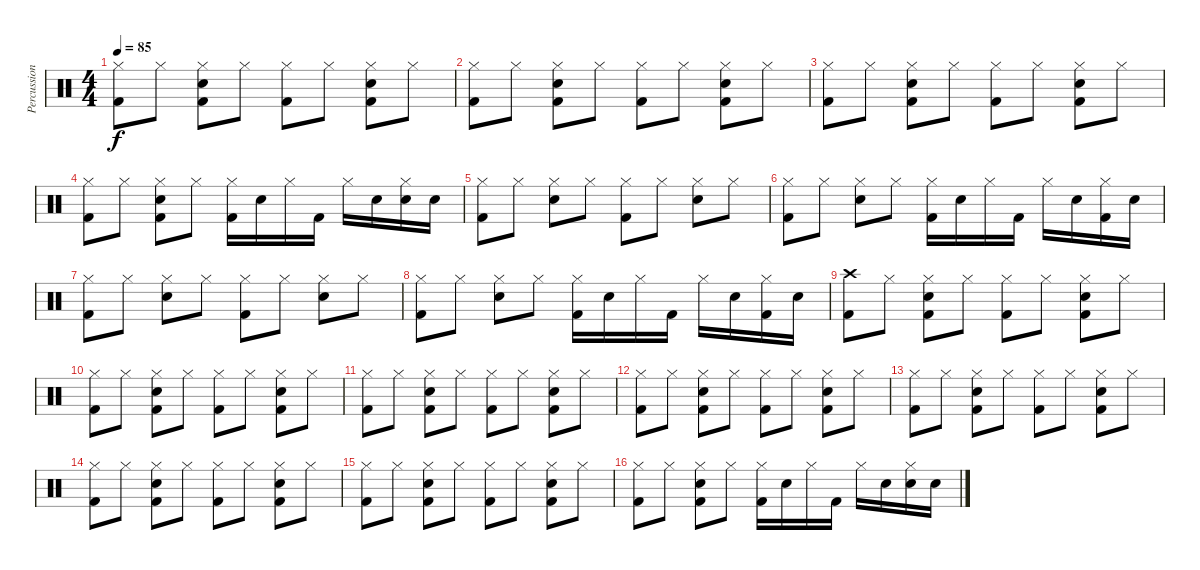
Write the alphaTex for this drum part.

\track ("Percussion" "Percussion") {instrument percussion}
\staff {score}
\articulation defaults
\ts (4 4)
\tempo 85
\clef neutral
\ks c
("Hi-Hat (closed)" "Kick (hit) 2").8{dy f} "Hi-Hat (closed)".8 ("Hi-Hat (closed)" "Electric Snare (hit)" "Kick (hit) 2").8 "Hi-Hat (closed)".8 ("Hi-Hat (closed)" "Kick (hit) 2").8 "Hi-Hat (closed)".8 ("Hi-Hat (closed)" "Electric Snare (hit)" "Kick (hit) 2").8 "Hi-Hat (closed)".8 |
("Hi-Hat (closed)" "Kick (hit) 2").8 "Hi-Hat (closed)".8 ("Hi-Hat (closed)" "Electric Snare (hit)" "Kick (hit) 2").8 "Hi-Hat (closed)".8 ("Hi-Hat (closed)" "Kick (hit) 2").8 "Hi-Hat (closed)".8 ("Hi-Hat (closed)" "Electric Snare (hit)" "Kick (hit) 2").8 "Hi-Hat (closed)".8 |
("Hi-Hat (closed)" "Kick (hit) 2").8 "Hi-Hat (closed)".8 ("Hi-Hat (closed)" "Electric Snare (hit)" "Kick (hit) 2").8 "Hi-Hat (closed)".8 ("Hi-Hat (closed)" "Kick (hit) 2").8 "Hi-Hat (closed)".8 ("Hi-Hat (closed)" "Electric Snare (hit)" "Kick (hit) 2").8 "Hi-Hat (closed)".8 |
("Hi-Hat (closed)" "Kick (hit) 2").8 "Hi-Hat (closed)".8 ("Hi-Hat (closed)" "Electric Snare (hit)" "Kick (hit) 2").8 "Hi-Hat (closed)".8 ("Hi-Hat (closed)" "Kick (hit) 2").16 "Electric Snare (hit)".16 "Hi-Hat (closed)".16 "Kick (hit) 2".16 "Hi-Hat (closed)".16 "Electric Snare (hit)".16 ("Hi-Hat (closed)" "Electric Snare (hit)").16 "Electric Snare (hit)".16 |
("Hi-Hat (closed)" "Kick (hit) 2").8 "Hi-Hat (closed)".8 ("Hi-Hat (closed)" "Electric Snare (hit)").8 "Hi-Hat (closed)".8 ("Hi-Hat (closed)" "Kick (hit) 2").8 "Hi-Hat (closed)".8 ("Hi-Hat (closed)" "Electric Snare (hit)").8 "Hi-Hat (closed)".8 |
("Hi-Hat (closed)" "Kick (hit) 2").8 "Hi-Hat (closed)".8 ("Hi-Hat (closed)" "Electric Snare (hit)").8 "Hi-Hat (closed)".8 ("Hi-Hat (closed)" "Kick (hit) 2").16 "Electric Snare (hit)".16 "Hi-Hat (closed)".16 "Kick (hit) 2".16 "Hi-Hat (closed)".16 "Electric Snare (hit)".16 ("Hi-Hat (closed)" "Kick (hit) 2").16 "Electric Snare (hit)".16 |
("Hi-Hat (closed)" "Kick (hit) 2").8 "Hi-Hat (closed)".8 ("Hi-Hat (closed)" "Electric Snare (hit)").8 "Hi-Hat (closed)".8 ("Hi-Hat (closed)" "Kick (hit) 2").8 "Hi-Hat (closed)".8 ("Hi-Hat (closed)" "Electric Snare (hit)").8 "Hi-Hat (closed)".8 |
("Hi-Hat (closed)" "Kick (hit) 2").8 "Hi-Hat (closed)".8 ("Hi-Hat (closed)" "Electric Snare (hit)").8 "Hi-Hat (closed)".8 ("Hi-Hat (closed)" "Kick (hit) 2").16 "Electric Snare (hit)".16 "Hi-Hat (closed)".16 "Kick (hit) 2".16 "Hi-Hat (closed)".16 "Electric Snare (hit)".16 ("Hi-Hat (closed)" "Kick (hit) 2").16 "Electric Snare (hit)".16 |
("Crash high (hit)" "Kick (hit) 2").8 "Hi-Hat (closed)".8 ("Hi-Hat (closed)" "Electric Snare (hit)" "Kick (hit) 2").8 "Hi-Hat (closed)".8 ("Hi-Hat (closed)" "Kick (hit) 2").8 "Hi-Hat (closed)".8 ("Hi-Hat (closed)" "Electric Snare (hit)" "Kick (hit) 2").8 "Hi-Hat (closed)".8 |
("Hi-Hat (closed)" "Kick (hit) 2").8 "Hi-Hat (closed)".8 ("Hi-Hat (closed)" "Electric Snare (hit)" "Kick (hit) 2").8 "Hi-Hat (closed)".8 ("Hi-Hat (closed)" "Kick (hit) 2").8 "Hi-Hat (closed)".8 ("Hi-Hat (closed)" "Electric Snare (hit)" "Kick (hit) 2").8 "Hi-Hat (closed)".8 |
("Hi-Hat (closed)" "Kick (hit) 2").8 "Hi-Hat (closed)".8 ("Hi-Hat (closed)" "Electric Snare (hit)" "Kick (hit) 2").8 "Hi-Hat (closed)".8 ("Hi-Hat (closed)" "Kick (hit) 2").8 "Hi-Hat (closed)".8 ("Hi-Hat (closed)" "Electric Snare (hit)" "Kick (hit) 2").8 "Hi-Hat (closed)".8 |
("Hi-Hat (closed)" "Kick (hit) 2").8 "Hi-Hat (closed)".8 ("Hi-Hat (closed)" "Electric Snare (hit)" "Kick (hit) 2").8 "Hi-Hat (closed)".8 ("Hi-Hat (closed)" "Kick (hit) 2").8 "Hi-Hat (closed)".8 ("Hi-Hat (closed)" "Electric Snare (hit)" "Kick (hit) 2").8 "Hi-Hat (closed)".8 |
("Hi-Hat (closed)" "Kick (hit) 2").8 "Hi-Hat (closed)".8 ("Hi-Hat (closed)" "Electric Snare (hit)" "Kick (hit) 2").8 "Hi-Hat (closed)".8 ("Hi-Hat (closed)" "Kick (hit) 2").8 "Hi-Hat (closed)".8 ("Hi-Hat (closed)" "Electric Snare (hit)" "Kick (hit) 2").8 "Hi-Hat (closed)".8 |
("Hi-Hat (closed)" "Kick (hit) 2").8 "Hi-Hat (closed)".8 ("Hi-Hat (closed)" "Electric Snare (hit)" "Kick (hit) 2").8 "Hi-Hat (closed)".8 ("Hi-Hat (closed)" "Kick (hit) 2").8 "Hi-Hat (closed)".8 ("Hi-Hat (closed)" "Electric Snare (hit)" "Kick (hit) 2").8 "Hi-Hat (closed)".8 |
("Hi-Hat (closed)" "Kick (hit) 2").8 "Hi-Hat (closed)".8 ("Hi-Hat (closed)" "Electric Snare (hit)" "Kick (hit) 2").8 "Hi-Hat (closed)".8 ("Hi-Hat (closed)" "Kick (hit) 2").8 "Hi-Hat (closed)".8 ("Hi-Hat (closed)" "Electric Snare (hit)" "Kick (hit) 2").8 "Hi-Hat (closed)".8 |
("Hi-Hat (closed)" "Kick (hit) 2").8 "Hi-Hat (closed)".8 ("Hi-Hat (closed)" "Electric Snare (hit)" "Kick (hit) 2").8 "Hi-Hat (closed)".8 ("Hi-Hat (closed)" "Kick (hit) 2").16 "Electric Snare (hit)".16 "Hi-Hat (closed)".16 "Kick (hit) 2".16 "Hi-Hat (closed)".16 "Electric Snare (hit)".16 ("Hi-Hat (closed)" "Electric Snare (hit)").16 "Electric Snare (hit)".16
